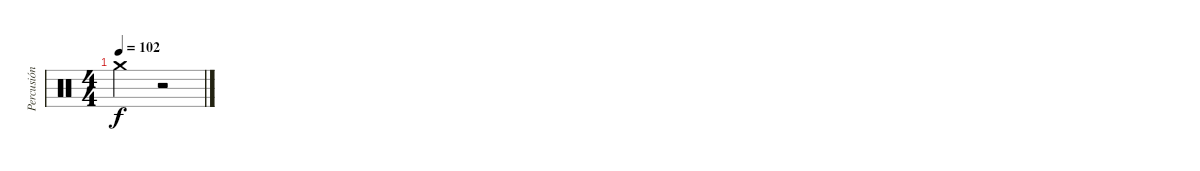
\track ("Percusión" "Percusión") {instrument percussion}
\staff {score}
\articulation defaults
\ts (4 4)
\tempo 102
\clef neutral
\ks c "Crash medium (hit)".2{dy f}
r.2
